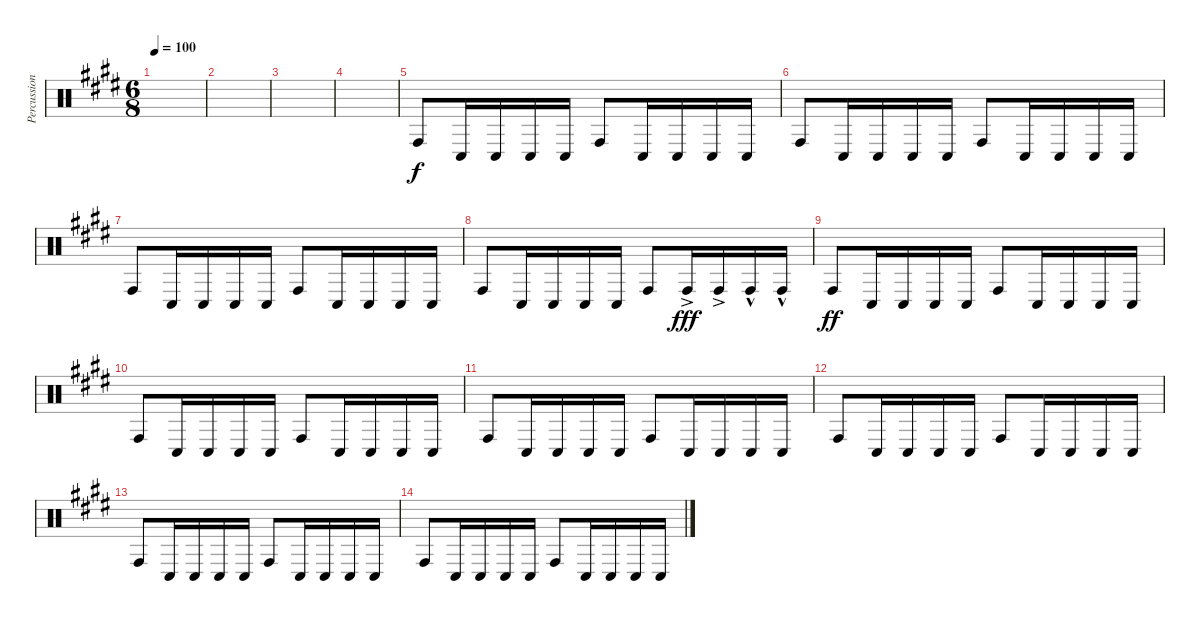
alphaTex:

\track ("Percussion" "Percussion") {instrument percussion}
\staff {score}
\articulation defaults
\ts (6 8)
\tempo 100
\clef neutral
\ks c#minor
|
|
|
|
"Conga high (hit)".8 "Conga low (hit)".16 "Conga low (hit)".16 "Conga low (hit)".16 "Conga low (hit)".16 "Conga high (hit)".8 "Conga low (hit)".16 "Conga low (hit)".16 "Conga low (hit)".16 "Conga low (hit)".16 |
"Conga high (hit)".8 "Conga low (hit)".16 "Conga low (hit)".16 "Conga low (hit)".16 "Conga low (hit)".16 "Conga high (hit)".8 "Conga low (hit)".16 "Conga low (hit)".16 "Conga low (hit)".16 "Conga low (hit)".16 |
"Conga high (hit)".8 "Conga low (hit)".16 "Conga low (hit)".16 "Conga low (hit)".16 "Conga low (hit)".16 "Conga high (hit)".8 "Conga low (hit)".16 "Conga low (hit)".16 "Conga low (hit)".16 "Conga low (hit)".16 |
"Conga high (hit)".8 "Conga low (hit)".16 "Conga low (hit)".16 "Conga low (hit)".16 "Conga low (hit)".16 "Conga high (hit)".8 "Conga high (hit)"{ac}.16{dy fff} "Conga high (hit)"{ac}.16 "Conga high (hit)"{hac}.16 "Conga high (hit)"{hac}.16 |
"Conga high (hit)".8{dy ff} "Conga low (hit)".16 "Conga low (hit)".16 "Conga low (hit)".16 "Conga low (hit)".16 "Conga high (hit)".8 "Conga low (hit)".16 "Conga low (hit)".16 "Conga low (hit)".16 "Conga low (hit)".16 |
"Conga high (hit)".8 "Conga low (hit)".16 "Conga low (hit)".16 "Conga low (hit)".16 "Conga low (hit)".16 "Conga high (hit)".8 "Conga low (hit)".16 "Conga low (hit)".16 "Conga low (hit)".16 "Conga low (hit)".16 |
"Conga high (hit)".8 "Conga low (hit)".16 "Conga low (hit)".16 "Conga low (hit)".16 "Conga low (hit)".16 "Conga high (hit)".8 "Conga low (hit)".16 "Conga low (hit)".16 "Conga low (hit)".16 "Conga low (hit)".16 |
"Conga high (hit)".8 "Conga low (hit)".16 "Conga low (hit)".16 "Conga low (hit)".16 "Conga low (hit)".16 "Conga high (hit)".8 "Conga low (hit)".16 "Conga low (hit)".16 "Conga low (hit)".16 "Conga low (hit)".16 |
"Conga high (hit)".8 "Conga low (hit)".16 "Conga low (hit)".16 "Conga low (hit)".16 "Conga low (hit)".16 "Conga high (hit)".8 "Conga low (hit)".16 "Conga low (hit)".16 "Conga low (hit)".16 "Conga low (hit)".16 |
"Conga high (hit)".8 "Conga low (hit)".16 "Conga low (hit)".16 "Conga low (hit)".16 "Conga low (hit)".16 "Conga high (hit)".8 "Conga low (hit)".16 "Conga low (hit)".16 "Conga low (hit)".16 "Conga low (hit)".16
